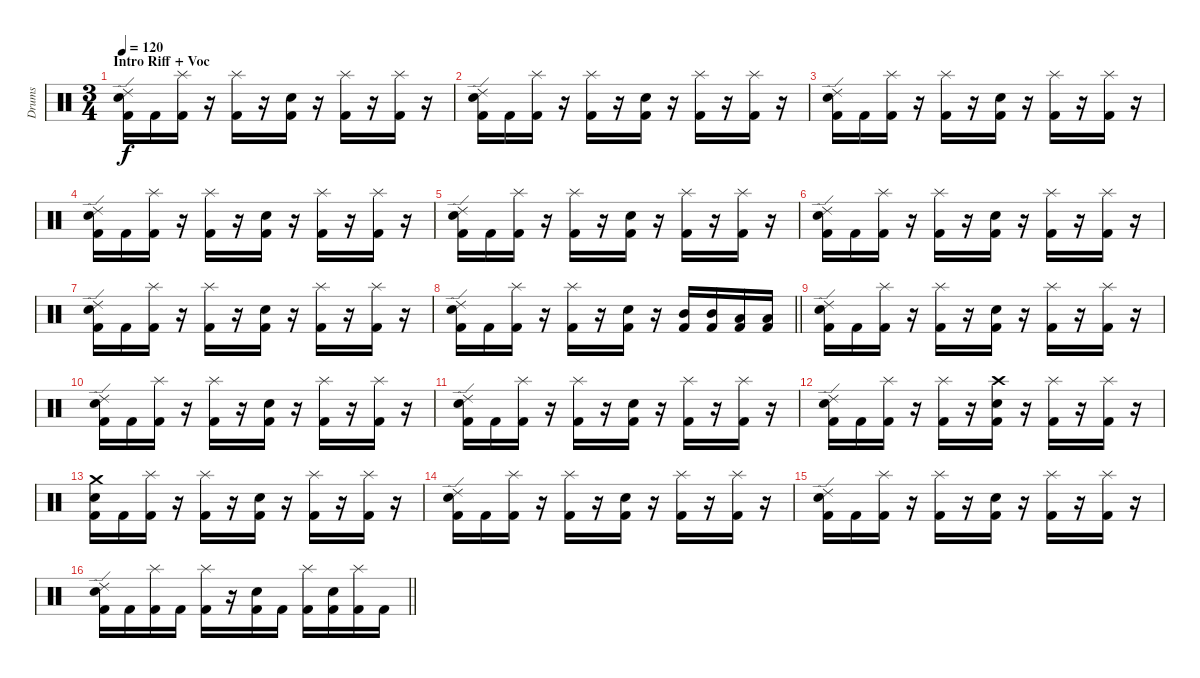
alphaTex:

\track ("Drums" "Drums") {instrument percussion}
\staff {score}
\articulation defaults
\ts (3 4)
\section ("" "Intro Riff + Voc")
\tempo 120
\clef neutral
\ks c
("Kick (hit) 2" "Ride (edge) 2" "Snare (hit) 2").16{dy f} "Kick (hit) 2".16 ("Kick (hit) 2" "Splash (hit)").16 r.16 ("Kick (hit) 2" "Splash (hit)").16 r.16 ("Kick (hit) 2" "Snare (hit) 2").16 r.16 ("Kick (hit) 2" "Splash (hit)").16 r.16 ("Kick (hit) 2" "Splash (hit)").16 r.16 |
("Kick (hit) 2" "Ride (edge) 2" "Snare (hit) 2").16 "Kick (hit) 2".16 ("Kick (hit) 2" "Splash (hit)").16 r.16 ("Kick (hit) 2" "Splash (hit)").16 r.16 ("Kick (hit) 2" "Snare (hit) 2").16 r.16 ("Kick (hit) 2" "Splash (hit)").16 r.16 ("Kick (hit) 2" "Splash (hit)").16 r.16 |
("Kick (hit) 2" "Ride (edge) 2" "Snare (hit) 2").16 "Kick (hit) 2".16 ("Kick (hit) 2" "Splash (hit)").16 r.16 ("Kick (hit) 2" "Splash (hit)").16 r.16 ("Kick (hit) 2" "Snare (hit) 2").16 r.16 ("Kick (hit) 2" "Splash (hit)").16 r.16 ("Kick (hit) 2" "Splash (hit)").16 r.16 |
("Kick (hit) 2" "Ride (edge) 2" "Snare (hit) 2").16 "Kick (hit) 2".16 ("Kick (hit) 2" "Splash (hit)").16 r.16 ("Kick (hit) 2" "Splash (hit)").16 r.16 ("Kick (hit) 2" "Snare (hit) 2").16 r.16 ("Kick (hit) 2" "Splash (hit)").16 r.16 ("Kick (hit) 2" "Splash (hit)").16 r.16 |
("Kick (hit) 2" "Ride (edge) 2" "Snare (hit) 2").16 "Kick (hit) 2".16 ("Kick (hit) 2" "Splash (hit)").16 r.16 ("Kick (hit) 2" "Splash (hit)").16 r.16 ("Kick (hit) 2" "Snare (hit) 2").16 r.16 ("Kick (hit) 2" "Splash (hit)").16 r.16 ("Kick (hit) 2" "Splash (hit)").16 r.16 |
("Kick (hit) 2" "Ride (edge) 2" "Snare (hit) 2").16 "Kick (hit) 2".16 ("Kick (hit) 2" "Splash (hit)").16 r.16 ("Kick (hit) 2" "Splash (hit)").16 r.16 ("Kick (hit) 2" "Snare (hit) 2").16 r.16 ("Kick (hit) 2" "Splash (hit)").16 r.16 ("Kick (hit) 2" "Splash (hit)").16 r.16 |
("Kick (hit) 2" "Ride (edge) 2" "Snare (hit) 2").16 "Kick (hit) 2".16 ("Kick (hit) 2" "Splash (hit)").16 r.16 ("Kick (hit) 2" "Splash (hit)").16 r.16 ("Kick (hit) 2" "Snare (hit) 2").16 r.16 ("Kick (hit) 2" "Splash (hit)").16 r.16 ("Kick (hit) 2" "Splash (hit)").16 r.16 |
\barLineRight lightlight
("Kick (hit) 2" "Ride (edge) 2" "Snare (hit) 2").16 "Kick (hit) 2".16 ("Kick (hit) 2" "Splash (hit)").16 r.16 ("Kick (hit) 2" "Splash (hit)").16 r.16 ("Kick (hit) 2" "Snare (hit) 2").16 r.16 ("Kick (hit) 2" "Mid Tom (hit)").16 ("Kick (hit) 2" "Mid Tom (hit)").16 ("Kick (hit) 2" "Low Tom (hit)").16 ("Kick (hit) 2" "Low Tom (hit)").16 |
("Kick (hit) 2" "Ride (edge) 2" "Snare (hit) 2").16 "Kick (hit) 2".16 ("Kick (hit) 2" "Splash (hit)").16 r.16 ("Kick (hit) 2" "Splash (hit)").16 r.16 ("Kick (hit) 2" "Snare (hit) 2").16 r.16 ("Kick (hit) 2" "Splash (hit)").16 r.16 ("Kick (hit) 2" "Splash (hit)").16 r.16 |
("Kick (hit) 2" "Ride (edge) 2" "Snare (hit) 2").16 "Kick (hit) 2".16 ("Kick (hit) 2" "Splash (hit)").16 r.16 ("Kick (hit) 2" "Splash (hit)").16 r.16 ("Kick (hit) 2" "Snare (hit) 2").16 r.16 ("Kick (hit) 2" "Splash (hit)").16 r.16 ("Kick (hit) 2" "Splash (hit)").16 r.16 |
("Kick (hit) 2" "Ride (edge) 2" "Snare (hit) 2").16 "Kick (hit) 2".16 ("Kick (hit) 2" "Splash (hit)").16 r.16 ("Kick (hit) 2" "Splash (hit)").16 r.16 ("Kick (hit) 2" "Snare (hit) 2").16 r.16 ("Kick (hit) 2" "Splash (hit)").16 r.16 ("Kick (hit) 2" "Splash (hit)").16 r.16 |
("Kick (hit) 2" "Ride (edge) 2" "Snare (hit) 2").16 "Kick (hit) 2".16 ("Kick (hit) 2" "Splash (hit)").16 r.16 ("Kick (hit) 2" "Splash (hit)").16 r.16 ("Kick (hit) 2" "Crash high (hit)" "Snare (hit) 2").16 r.16 ("Kick (hit) 2" "Splash (hit)").16 r.16 ("Kick (hit) 2" "Splash (hit)").16 r.16 |
("Kick (hit) 2" "Crash medium (hit)" "Snare (hit) 2").16 "Kick (hit) 2".16 ("Kick (hit) 2" "Splash (hit)").16 r.16 ("Kick (hit) 2" "Splash (hit)").16 r.16 ("Kick (hit) 2" "Snare (hit) 2").16 r.16 ("Kick (hit) 2" "Splash (hit)").16 r.16 ("Kick (hit) 2" "Splash (hit)").16 r.16 |
("Kick (hit) 2" "Ride (edge) 2" "Snare (hit) 2").16 "Kick (hit) 2".16 ("Kick (hit) 2" "Splash (hit)").16 r.16 ("Kick (hit) 2" "Splash (hit)").16 r.16 ("Kick (hit) 2" "Snare (hit) 2").16 r.16 ("Kick (hit) 2" "Splash (hit)").16 r.16 ("Kick (hit) 2" "Splash (hit)").16 r.16 |
("Kick (hit) 2" "Ride (edge) 2" "Snare (hit) 2").16 "Kick (hit) 2".16 ("Kick (hit) 2" "Splash (hit)").16 r.16 ("Kick (hit) 2" "Splash (hit)").16 r.16 ("Kick (hit) 2" "Snare (hit) 2").16 r.16 ("Kick (hit) 2" "Splash (hit)").16 r.16 ("Kick (hit) 2" "Splash (hit)").16 r.16 |
\barLineRight lightlight
("Kick (hit) 2" "Ride (edge) 2" "Snare (hit) 2").16 "Kick (hit) 2".16 ("Kick (hit) 2" "Splash (hit)").16 "Kick (hit) 2".16 ("Kick (hit) 2" "Splash (hit)").16 r.16 ("Kick (hit) 2" "Snare (hit) 2").16 "Kick (hit) 2".16 ("Kick (hit) 2" "Splash (hit)").16 ("Kick (hit) 2" "Snare (hit) 2").16 ("Kick (hit) 2" "Splash (hit)").16 "Kick (hit) 2".16
